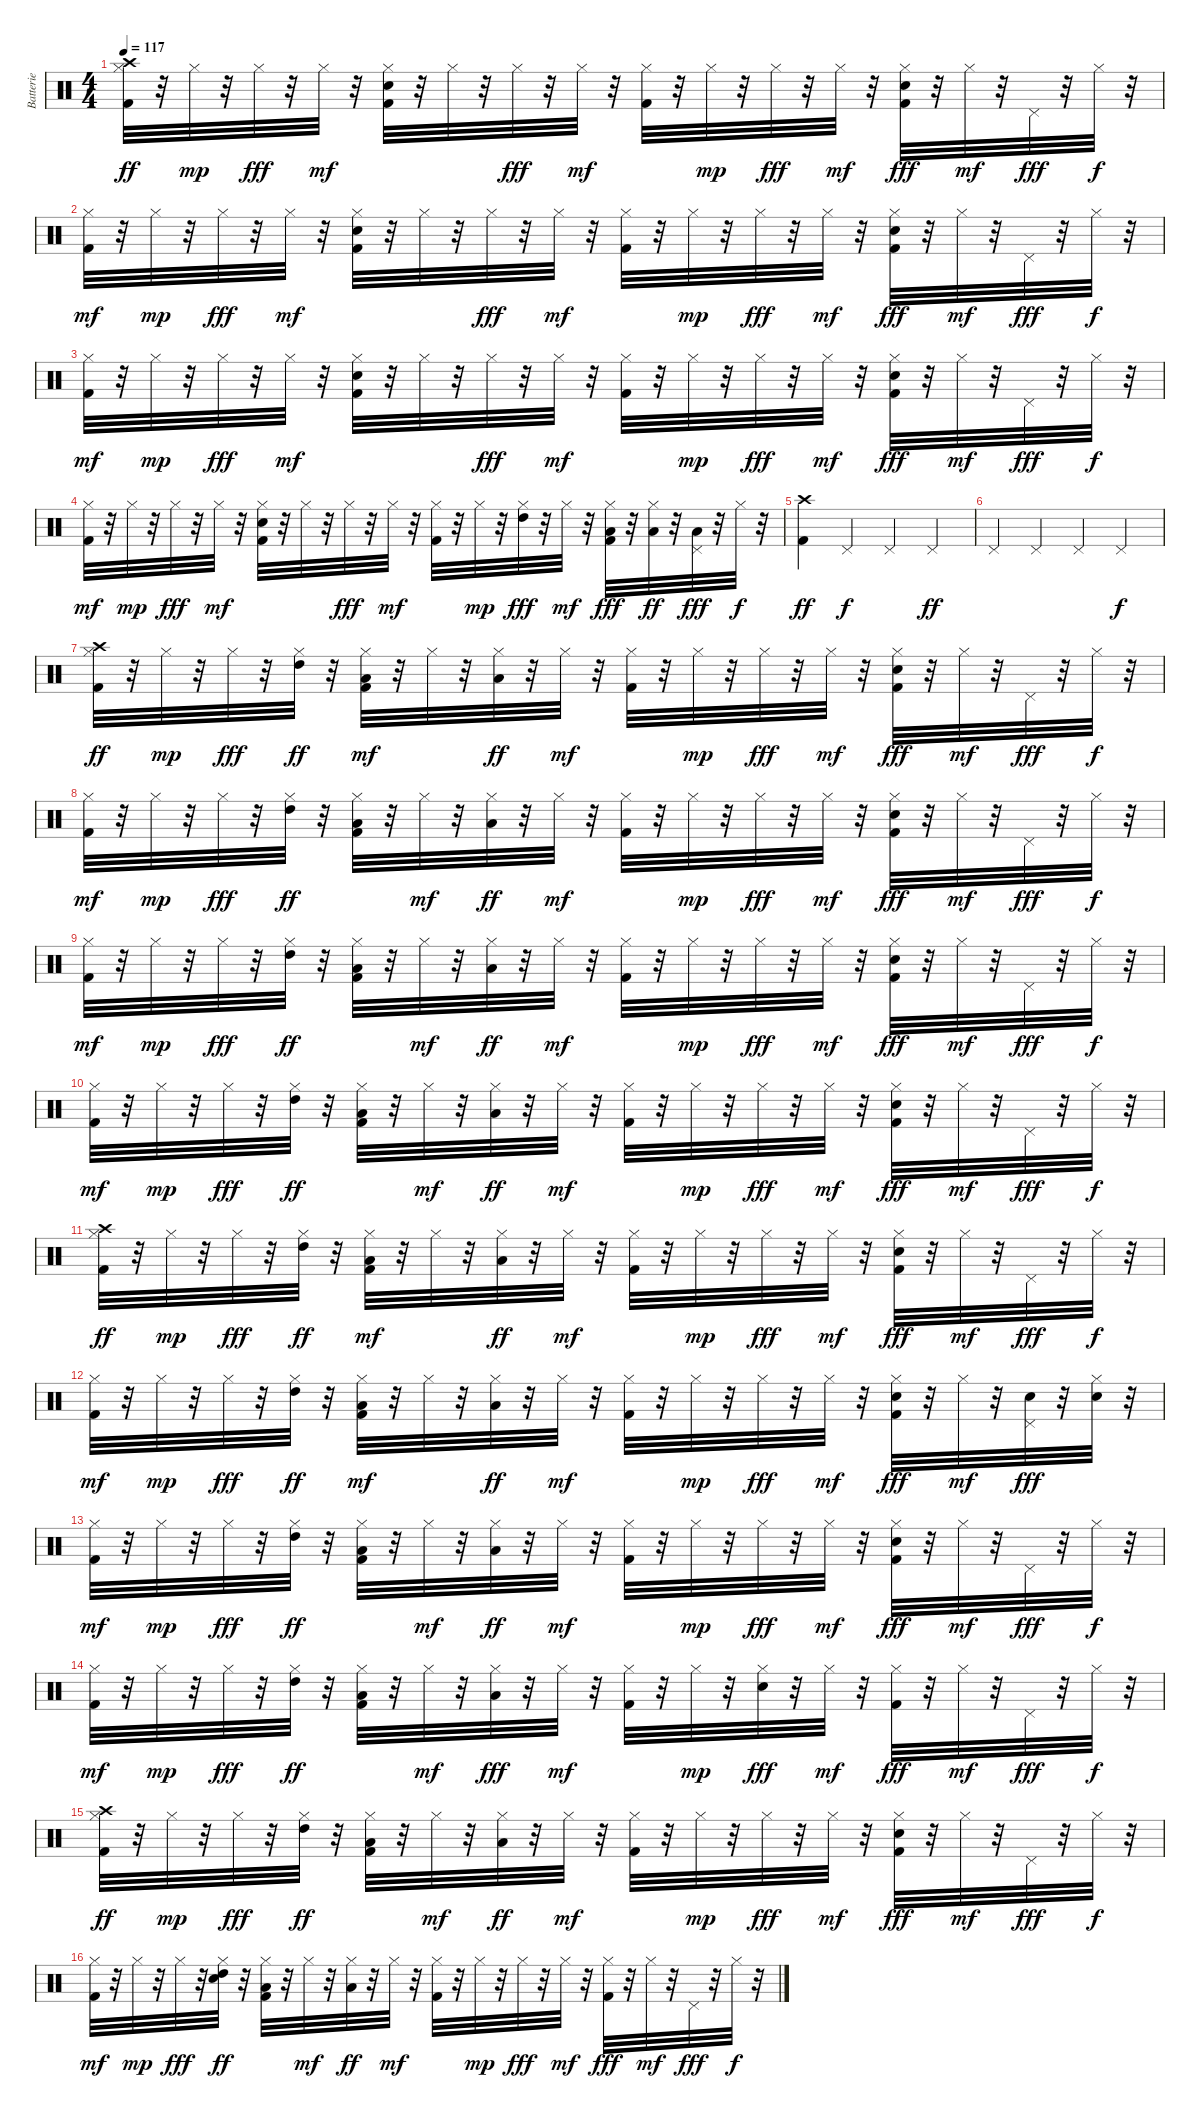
\track ("Batterie" "Batterie") {instrument percussion}
\staff {score}
\articulation defaults
\ts (4 4)
\tempo 117
\clef neutral
\ks c
("Kick (hit) 2" "Hi-Hat (closed)" "Crash high (hit)").32{dy ff} r.32 "Hi-Hat (closed)".32{dy mp} r.32 "Hi-Hat (closed)".32{dy fff} r.32 "Hi-Hat (closed)".32{dy mf} r.32 ("Kick (hit) 2" "Electric Snare (hit)" "Hi-Hat (closed)").32 r.32 "Hi-Hat (closed)".32 r.32 "Hi-Hat (closed)".32{dy fff} r.32 "Hi-Hat (closed)".32{dy mf} r.32 ("Kick (hit) 2" "Hi-Hat (closed)").32 r.32 "Hi-Hat (closed)".32{dy mp} r.32 "Hi-Hat (closed)".32{dy fff} r.32 "Hi-Hat (closed)".32{dy mf} r.32 ("Kick (hit) 2" "Electric Snare (hit)" "Hi-Hat (closed)").32{dy fff} r.32 "Hi-Hat (closed)".32{dy mf} r.32 "Pedal Hi-Hat (hit)".32{dy fff} r.32 "Hi-Hat (closed)".32{dy f} r.32 |
("Kick (hit) 2" "Hi-Hat (closed)").32{dy mf} r.32 "Hi-Hat (closed)".32{dy mp} r.32 "Hi-Hat (closed)".32{dy fff} r.32 "Hi-Hat (closed)".32{dy mf} r.32 ("Kick (hit) 2" "Electric Snare (hit)" "Hi-Hat (closed)").32 r.32 "Hi-Hat (closed)".32 r.32 "Hi-Hat (closed)".32{dy fff} r.32 "Hi-Hat (closed)".32{dy mf} r.32 ("Kick (hit) 2" "Hi-Hat (closed)").32 r.32 "Hi-Hat (closed)".32{dy mp} r.32 "Hi-Hat (closed)".32{dy fff} r.32 "Hi-Hat (closed)".32{dy mf} r.32 ("Kick (hit) 2" "Electric Snare (hit)" "Hi-Hat (closed)").32{dy fff} r.32 "Hi-Hat (closed)".32{dy mf} r.32 "Pedal Hi-Hat (hit)".32{dy fff} r.32 "Hi-Hat (closed)".32{dy f} r.32 |
("Kick (hit) 2" "Hi-Hat (closed)").32{dy mf} r.32 "Hi-Hat (closed)".32{dy mp} r.32 "Hi-Hat (closed)".32{dy fff} r.32 "Hi-Hat (closed)".32{dy mf} r.32 ("Kick (hit) 2" "Electric Snare (hit)" "Hi-Hat (closed)").32 r.32 "Hi-Hat (closed)".32 r.32 "Hi-Hat (closed)".32{dy fff} r.32 "Hi-Hat (closed)".32{dy mf} r.32 ("Kick (hit) 2" "Hi-Hat (closed)").32 r.32 "Hi-Hat (closed)".32{dy mp} r.32 "Hi-Hat (closed)".32{dy fff} r.32 "Hi-Hat (closed)".32{dy mf} r.32 ("Kick (hit) 2" "Electric Snare (hit)" "Hi-Hat (closed)").32{dy fff} r.32 "Hi-Hat (closed)".32{dy mf} r.32 "Pedal Hi-Hat (hit)".32{dy fff} r.32 "Hi-Hat (closed)".32{dy f} r.32 |
("Kick (hit) 2" "Hi-Hat (closed)").32{dy mf} r.32 "Hi-Hat (closed)".32{dy mp} r.32 "Hi-Hat (closed)".32{dy fff} r.32 "Hi-Hat (closed)".32{dy mf} r.32 ("Kick (hit) 2" "Electric Snare (hit)" "Hi-Hat (closed)").32 r.32 "Hi-Hat (closed)".32 r.32 "Hi-Hat (closed)".32{dy fff} r.32 "Hi-Hat (closed)".32{dy mf} r.32 ("Kick (hit) 2" "Hi-Hat (closed)").32 r.32 "Hi-Hat (closed)".32{dy mp} r.32 ("Hi-Hat (closed)" "High Tom (hit)").32{dy fff} r.32 "Hi-Hat (closed)".32{dy mf} r.32 ("Kick (hit) 2" "Hi-Hat (closed)" "Low Tom (hit)").32{dy fff} r.32 ("Hi-Hat (closed)" "Low Tom (hit)").32{dy ff} r.32 ("Pedal Hi-Hat (hit)" "Low Floor Tom (hit)").32{dy fff} r.32 "Hi-Hat (closed)".32{dy f} r.32 |
("Kick (hit) 2" "Crash high (hit)").4{dy ff} "Pedal Hi-Hat (hit)".4{dy f} "Pedal Hi-Hat (hit)".4 "Pedal Hi-Hat (hit)".4{dy ff} |
"Pedal Hi-Hat (hit)".4 "Pedal Hi-Hat (hit)".4 "Pedal Hi-Hat (hit)".4 "Pedal Hi-Hat (hit)".4{dy f} |
("Kick (hit) 2" "Hi-Hat (closed)" "Crash high (hit)").32{dy ff} r.32 "Hi-Hat (closed)".32{dy mp} r.32 "Hi-Hat (closed)".32{dy fff} r.32 ("Hi-Hat (closed)" "High Tom (hit)").32{dy ff} r.32 ("Kick (hit) 2" "Hi-Hat (closed)" "Low Tom (hit)").32{dy mf} r.32 "Hi-Hat (closed)".32 r.32 ("Hi-Hat (closed)" "Low Floor Tom (hit)").32{dy ff} r.32 "Hi-Hat (closed)".32{dy mf} r.32 ("Kick (hit) 2" "Hi-Hat (closed)").32 r.32 "Hi-Hat (closed)".32{dy mp} r.32 "Hi-Hat (closed)".32{dy fff} r.32 "Hi-Hat (closed)".32{dy mf} r.32 ("Kick (hit) 2" "Electric Snare (hit)" "Hi-Hat (closed)").32{dy fff} r.32 "Hi-Hat (closed)".32{dy mf} r.32 "Pedal Hi-Hat (hit)".32{dy fff} r.32 "Hi-Hat (closed)".32{dy f} r.32 |
("Kick (hit) 2" "Hi-Hat (closed)").32{dy mf} r.32 "Hi-Hat (closed)".32{dy mp} r.32 "Hi-Hat (closed)".32{dy fff} r.32 ("Hi-Hat (closed)" "High Tom (hit)").32{dy ff} r.32 ("Kick (hit) 2" "Hi-Hat (closed)" "Low Tom (hit)").32 r.32 "Hi-Hat (closed)".32{dy mf} r.32 ("Hi-Hat (closed)" "Low Floor Tom (hit)").32{dy ff} r.32 "Hi-Hat (closed)".32{dy mf} r.32 ("Kick (hit) 2" "Hi-Hat (closed)").32 r.32 "Hi-Hat (closed)".32{dy mp} r.32 "Hi-Hat (closed)".32{dy fff} r.32 "Hi-Hat (closed)".32{dy mf} r.32 ("Kick (hit) 2" "Electric Snare (hit)" "Hi-Hat (closed)").32{dy fff} r.32 "Hi-Hat (closed)".32{dy mf} r.32 "Pedal Hi-Hat (hit)".32{dy fff} r.32 "Hi-Hat (closed)".32{dy f} r.32 |
("Kick (hit) 2" "Hi-Hat (closed)").32{dy mf} r.32 "Hi-Hat (closed)".32{dy mp} r.32 "Hi-Hat (closed)".32{dy fff} r.32 ("Hi-Hat (closed)" "High Tom (hit)").32{dy ff} r.32 ("Kick (hit) 2" "Hi-Hat (closed)" "Low Tom (hit)").32 r.32 "Hi-Hat (closed)".32{dy mf} r.32 ("Hi-Hat (closed)" "Low Floor Tom (hit)").32{dy ff} r.32 "Hi-Hat (closed)".32{dy mf} r.32 ("Kick (hit) 2" "Hi-Hat (closed)").32 r.32 "Hi-Hat (closed)".32{dy mp} r.32 "Hi-Hat (closed)".32{dy fff} r.32 "Hi-Hat (closed)".32{dy mf} r.32 ("Kick (hit) 2" "Electric Snare (hit)" "Hi-Hat (closed)").32{dy fff} r.32 "Hi-Hat (closed)".32{dy mf} r.32 "Pedal Hi-Hat (hit)".32{dy fff} r.32 "Hi-Hat (closed)".32{dy f} r.32 |
("Kick (hit) 2" "Hi-Hat (closed)").32{dy mf} r.32 "Hi-Hat (closed)".32{dy mp} r.32 "Hi-Hat (closed)".32{dy fff} r.32 ("Hi-Hat (closed)" "High Tom (hit)").32{dy ff} r.32 ("Kick (hit) 2" "Hi-Hat (closed)" "Low Tom (hit)").32 r.32 "Hi-Hat (closed)".32{dy mf} r.32 ("Hi-Hat (closed)" "Low Floor Tom (hit)").32{dy ff} r.32 "Hi-Hat (closed)".32{dy mf} r.32 ("Kick (hit) 2" "Hi-Hat (closed)").32 r.32 "Hi-Hat (closed)".32{dy mp} r.32 "Hi-Hat (closed)".32{dy fff} r.32 "Hi-Hat (closed)".32{dy mf} r.32 ("Kick (hit) 2" "Electric Snare (hit)" "Hi-Hat (closed)").32{dy fff} r.32 "Hi-Hat (closed)".32{dy mf} r.32 "Pedal Hi-Hat (hit)".32{dy fff} r.32 "Hi-Hat (closed)".32{dy f} r.32 |
("Kick (hit) 2" "Hi-Hat (closed)" "Crash high (hit)").32{dy ff} r.32 "Hi-Hat (closed)".32{dy mp} r.32 "Hi-Hat (closed)".32{dy fff} r.32 ("Hi-Hat (closed)" "High Tom (hit)").32{dy ff} r.32 ("Kick (hit) 2" "Hi-Hat (closed)" "Low Tom (hit)").32{dy mf} r.32 "Hi-Hat (closed)".32 r.32 ("Hi-Hat (closed)" "Low Floor Tom (hit)").32{dy ff} r.32 "Hi-Hat (closed)".32{dy mf} r.32 ("Kick (hit) 2" "Hi-Hat (closed)").32 r.32 "Hi-Hat (closed)".32{dy mp} r.32 "Hi-Hat (closed)".32{dy fff} r.32 "Hi-Hat (closed)".32{dy mf} r.32 ("Kick (hit) 2" "Electric Snare (hit)" "Hi-Hat (closed)").32{dy fff} r.32 "Hi-Hat (closed)".32{dy mf} r.32 "Pedal Hi-Hat (hit)".32{dy fff} r.32 "Hi-Hat (closed)".32{dy f} r.32 |
("Kick (hit) 2" "Hi-Hat (closed)").32{dy mf} r.32 "Hi-Hat (closed)".32{dy mp} r.32 "Hi-Hat (closed)".32{dy fff} r.32 ("Hi-Hat (closed)" "High Tom (hit)").32{dy ff} r.32 ("Kick (hit) 2" "Hi-Hat (closed)" "Low Tom (hit)").32{dy mf} r.32 "Hi-Hat (closed)".32 r.32 ("Hi-Hat (closed)" "Low Floor Tom (hit)").32{dy ff} r.32 "Hi-Hat (closed)".32{dy mf} r.32 ("Kick (hit) 2" "Hi-Hat (closed)").32 r.32 "Hi-Hat (closed)".32{dy mp} r.32 "Hi-Hat (closed)".32{dy fff} r.32 "Hi-Hat (closed)".32{dy mf} r.32 ("Kick (hit) 2" "Electric Snare (hit)" "Hi-Hat (closed)").32{dy fff} r.32 "Hi-Hat (closed)".32{dy mf} r.32 ("Electric Snare (hit)" "Pedal Hi-Hat (hit)").32{dy fff} r.32 ("Electric Snare (hit)" "Hi-Hat (closed)").32 r.32 |
("Kick (hit) 2" "Hi-Hat (closed)").32{dy mf} r.32 "Hi-Hat (closed)".32{dy mp} r.32 "Hi-Hat (closed)".32{dy fff} r.32 ("Hi-Hat (closed)" "High Tom (hit)").32{dy ff} r.32 ("Kick (hit) 2" "Hi-Hat (closed)" "Low Tom (hit)").32 r.32 "Hi-Hat (closed)".32{dy mf} r.32 ("Hi-Hat (closed)" "Low Floor Tom (hit)").32{dy ff} r.32 "Hi-Hat (closed)".32{dy mf} r.32 ("Kick (hit) 2" "Hi-Hat (closed)").32 r.32 "Hi-Hat (closed)".32{dy mp} r.32 "Hi-Hat (closed)".32{dy fff} r.32 "Hi-Hat (closed)".32{dy mf} r.32 ("Kick (hit) 2" "Electric Snare (hit)" "Hi-Hat (closed)").32{dy fff} r.32 "Hi-Hat (closed)".32{dy mf} r.32 "Pedal Hi-Hat (hit)".32{dy fff} r.32 "Hi-Hat (closed)".32{dy f} r.32 |
("Kick (hit) 2" "Hi-Hat (closed)").32{dy mf} r.32 "Hi-Hat (closed)".32{dy mp} r.32 "Hi-Hat (closed)".32{dy fff} r.32 ("Hi-Hat (closed)" "High Tom (hit)").32{dy ff} r.32 ("Kick (hit) 2" "Hi-Hat (closed)" "Low Tom (hit)").32 r.32 "Hi-Hat (closed)".32{dy mf} r.32 ("Hi-Hat (closed)" "Low Floor Tom (hit)").32{dy fff} r.32 "Hi-Hat (closed)".32{dy mf} r.32 ("Kick (hit) 2" "Hi-Hat (closed)").32 r.32 "Hi-Hat (closed)".32{dy mp} r.32 ("Electric Snare (hit)" "Hi-Hat (closed)").32{dy fff} r.32 "Hi-Hat (closed)".32{dy mf} r.32 ("Kick (hit) 2" "Hi-Hat (closed)").32{dy fff} r.32 "Hi-Hat (closed)".32{dy mf} r.32 "Pedal Hi-Hat (hit)".32{dy fff} r.32 "Hi-Hat (closed)".32{dy f} r.32 |
("Kick (hit) 2" "Hi-Hat (closed)" "Crash high (hit)").32{dy ff} r.32 "Hi-Hat (closed)".32{dy mp} r.32 "Hi-Hat (closed)".32{dy fff} r.32 ("Hi-Hat (closed)" "High Tom (hit)").32{dy ff} r.32 ("Kick (hit) 2" "Hi-Hat (closed)" "Low Tom (hit)").32 r.32 "Hi-Hat (closed)".32{dy mf} r.32 ("Hi-Hat (closed)" "Low Floor Tom (hit)").32{dy ff} r.32 "Hi-Hat (closed)".32{dy mf} r.32 ("Kick (hit) 2" "Hi-Hat (closed)").32 r.32 "Hi-Hat (closed)".32{dy mp} r.32 "Hi-Hat (closed)".32{dy fff} r.32 "Hi-Hat (closed)".32{dy mf} r.32 ("Kick (hit) 2" "Electric Snare (hit)" "Hi-Hat (closed)").32{dy fff} r.32 "Hi-Hat (closed)".32{dy mf} r.32 "Pedal Hi-Hat (hit)".32{dy fff} r.32 "Hi-Hat (closed)".32{dy f} r.32 |
("Kick (hit) 2" "Hi-Hat (closed)").32{dy mf} r.32 "Hi-Hat (closed)".32{dy mp} r.32 "Hi-Hat (closed)".32{dy fff} r.32 ("Electric Snare (hit)" "Hi-Hat (closed)" "High Tom (hit)").32{dy ff} r.32 ("Kick (hit) 2" "Hi-Hat (closed)" "Low Tom (hit)").32 r.32 "Hi-Hat (closed)".32{dy mf} r.32 ("Hi-Hat (closed)" "Low Floor Tom (hit)").32{dy ff} r.32 "Hi-Hat (closed)".32{dy mf} r.32 ("Kick (hit) 2" "Hi-Hat (closed)").32 r.32 "Hi-Hat (closed)".32{dy mp} r.32 "Hi-Hat (closed)".32{dy fff} r.32 "Hi-Hat (closed)".32{dy mf} r.32 ("Kick (hit) 2" "Hi-Hat (closed)").32{dy fff} r.32 "Hi-Hat (closed)".32{dy mf} r.32 "Pedal Hi-Hat (hit)".32{dy fff} r.32 "Hi-Hat (closed)".32{dy f} r.32
